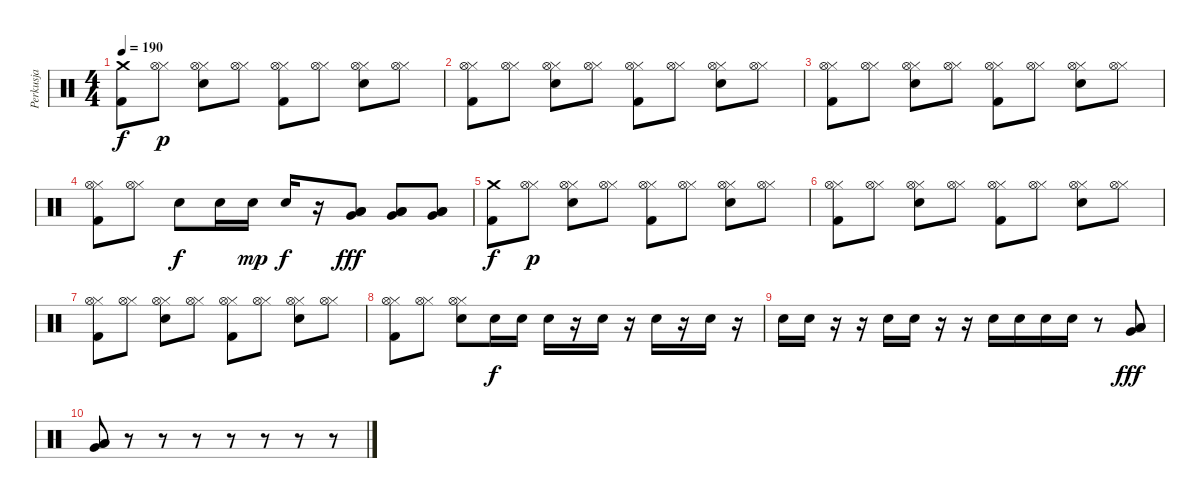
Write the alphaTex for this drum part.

\track ("Perkusja" "Perkusja") {instrument percussion}
\staff {score}
\articulation defaults
\ts (4 4)
\tempo 190
\clef neutral
\ks c
("Kick (hit) 2" "Crash medium (hit)").8{dy f} ("Hi-Hat (closed)" "Hi-Hat (open)").8{dy p} ("Electric Snare (hit)" "Hi-Hat (closed)" "Hi-Hat (open)").8 ("Hi-Hat (closed)" "Hi-Hat (open)").8 ("Kick (hit) 2" "Hi-Hat (closed)" "Hi-Hat (open)").8 ("Hi-Hat (closed)" "Hi-Hat (open)").8 ("Electric Snare (hit)" "Hi-Hat (closed)" "Hi-Hat (open)").8 ("Hi-Hat (closed)" "Hi-Hat (open)").8 |
("Kick (hit) 2" "Hi-Hat (closed)" "Hi-Hat (open)").8 ("Hi-Hat (closed)" "Hi-Hat (open)").8 ("Electric Snare (hit)" "Hi-Hat (closed)" "Hi-Hat (open)").8 ("Hi-Hat (closed)" "Hi-Hat (open)").8 ("Kick (hit) 2" "Hi-Hat (closed)" "Hi-Hat (open)").8 ("Hi-Hat (closed)" "Hi-Hat (open)").8 ("Electric Snare (hit)" "Hi-Hat (closed)" "Hi-Hat (open)").8 ("Hi-Hat (closed)" "Hi-Hat (open)").8 |
("Kick (hit) 2" "Hi-Hat (closed)" "Hi-Hat (open)").8 ("Hi-Hat (closed)" "Hi-Hat (open)").8 ("Electric Snare (hit)" "Hi-Hat (closed)" "Hi-Hat (open)").8 ("Hi-Hat (closed)" "Hi-Hat (open)").8 ("Kick (hit) 2" "Hi-Hat (closed)" "Hi-Hat (open)").8 ("Hi-Hat (closed)" "Hi-Hat (open)").8 ("Electric Snare (hit)" "Hi-Hat (closed)" "Hi-Hat (open)").8 ("Hi-Hat (closed)" "Hi-Hat (open)").8 |
("Kick (hit) 2" "Hi-Hat (closed)" "Hi-Hat (open)").8 ("Hi-Hat (closed)" "Hi-Hat (open)").8 "Electric Snare (hit)".8{dy f} "Electric Snare (hit)".16 "Electric Snare (hit)".16{dy mp} "Electric Snare (hit)".16{dy f} r.16 ("Very Low Tom (hit)" "Low Tom (hit)" "Low Floor Tom (hit)").8{dy fff} ("Very Low Tom (hit)" "Low Tom (hit)" "Low Floor Tom (hit)").8 ("Very Low Tom (hit)" "Low Tom (hit)" "Low Floor Tom (hit)").8 |
("Kick (hit) 2" "Crash medium (hit)").8{dy f} ("Hi-Hat (closed)" "Hi-Hat (open)").8{dy p} ("Electric Snare (hit)" "Hi-Hat (closed)" "Hi-Hat (open)").8 ("Hi-Hat (closed)" "Hi-Hat (open)").8 ("Kick (hit) 2" "Hi-Hat (closed)" "Hi-Hat (open)").8 ("Hi-Hat (closed)" "Hi-Hat (open)").8 ("Electric Snare (hit)" "Hi-Hat (closed)" "Hi-Hat (open)").8 ("Hi-Hat (closed)" "Hi-Hat (open)").8 |
("Kick (hit) 2" "Hi-Hat (closed)" "Hi-Hat (open)").8 ("Hi-Hat (closed)" "Hi-Hat (open)").8 ("Electric Snare (hit)" "Hi-Hat (closed)" "Hi-Hat (open)").8 ("Hi-Hat (closed)" "Hi-Hat (open)").8 ("Kick (hit) 2" "Hi-Hat (closed)" "Hi-Hat (open)").8 ("Hi-Hat (closed)" "Hi-Hat (open)").8 ("Electric Snare (hit)" "Hi-Hat (closed)" "Hi-Hat (open)").8 ("Hi-Hat (closed)" "Hi-Hat (open)").8 |
("Kick (hit) 2" "Hi-Hat (closed)" "Hi-Hat (open)").8 ("Hi-Hat (closed)" "Hi-Hat (open)").8 ("Electric Snare (hit)" "Hi-Hat (closed)" "Hi-Hat (open)").8 ("Hi-Hat (closed)" "Hi-Hat (open)").8 ("Kick (hit) 2" "Hi-Hat (closed)" "Hi-Hat (open)").8 ("Hi-Hat (closed)" "Hi-Hat (open)").8 ("Electric Snare (hit)" "Hi-Hat (closed)" "Hi-Hat (open)").8 ("Hi-Hat (closed)" "Hi-Hat (open)").8 |
("Kick (hit) 2" "Hi-Hat (closed)" "Hi-Hat (open)").8 ("Hi-Hat (closed)" "Hi-Hat (open)").8 ("Electric Snare (hit)" "Hi-Hat (closed)" "Hi-Hat (open)").8 "Electric Snare (hit)".16{dy f} "Electric Snare (hit)".16 "Electric Snare (hit)".16 r.16 "Electric Snare (hit)".16 r.16 "Electric Snare (hit)".16 r.16 "Electric Snare (hit)".16 r.16 |
"Electric Snare (hit)".16 "Electric Snare (hit)".16 r.16 r.16 "Electric Snare (hit)".16 "Electric Snare (hit)".16 r.16 r.16 "Electric Snare (hit)".16 "Electric Snare (hit)".16 "Electric Snare (hit)".16 "Electric Snare (hit)".16 r.8 ("Very Low Tom (hit)" "Low Tom (hit)" "Low Floor Tom (hit)").8{dy fff} |
("Very Low Tom (hit)" "Low Tom (hit)" "Low Floor Tom (hit)").8 r.8 r.8 r.8 r.8 r.8 r.8 r.8
